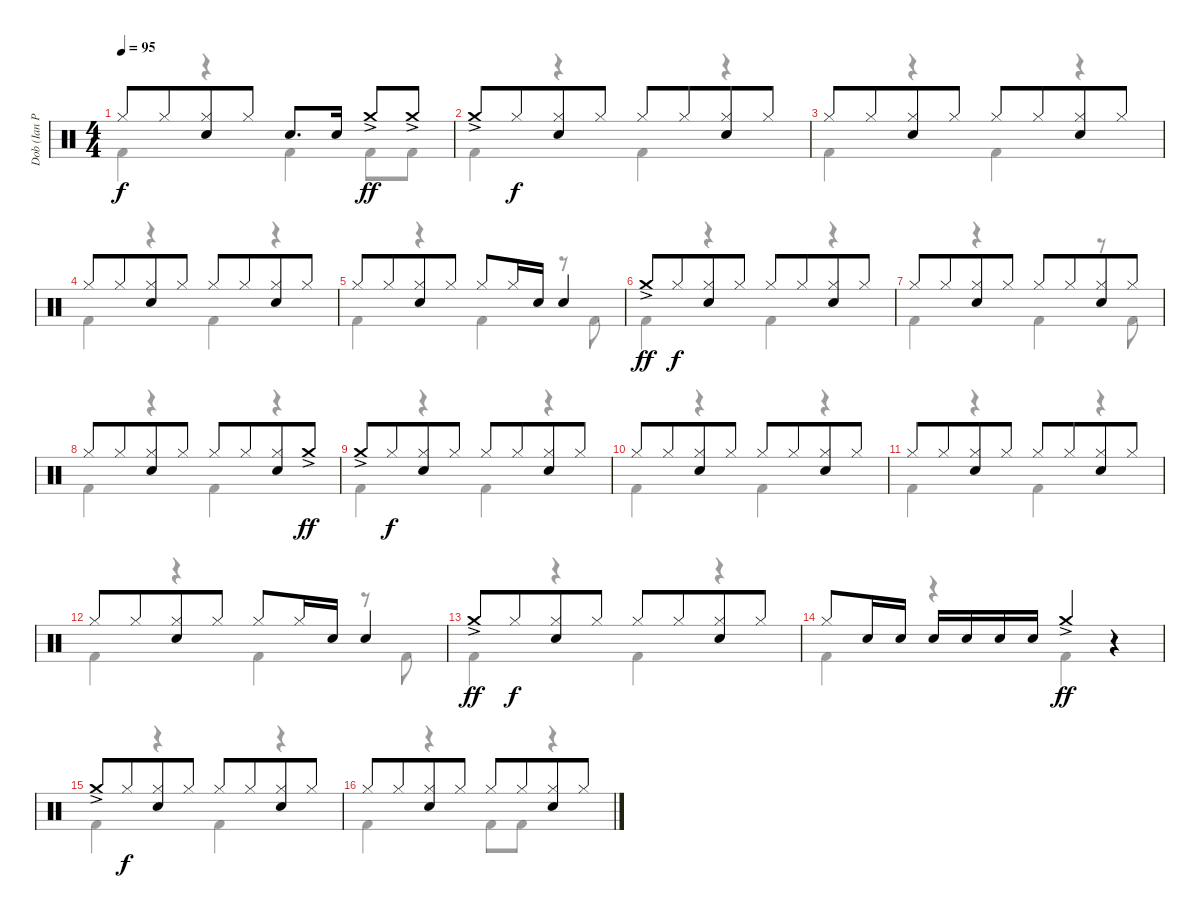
\track ("Dob (Ian Paice)" "Dob (Ian P") {instrument percussion}
\staff {score}
\articulation defaults
\voice
\ts (4 4)
\tempo 95
\clef neutral
\ks c "Hi-Hat (closed)".8{dy f} "Hi-Hat (closed)".8{beam merge}
("Hi-Hat (closed)" "Electric Snare (hit)").8 "Hi-Hat (closed)".8 "Electric Snare (hit)".8{d} "Electric Snare (hit)".16 "Crash medium (hit)"{ac}.8{dy ff} "Crash medium (hit)"{ac}.8 |
"Crash medium (hit)"{ac}.8 "Hi-Hat (closed)".8{dy f beam merge} ("Hi-Hat (closed)" "Electric Snare (hit)").8 "Hi-Hat (closed)".8 "Hi-Hat (closed)".8 "Hi-Hat (closed)".8{beam merge} ("Hi-Hat (closed)" "Electric Snare (hit)").8 "Hi-Hat (closed)".8 |
"Hi-Hat (closed)".8 "Hi-Hat (closed)".8{beam merge} ("Hi-Hat (closed)" "Electric Snare (hit)").8 "Hi-Hat (closed)".8 "Hi-Hat (closed)".8 "Hi-Hat (closed)".8{beam merge} ("Hi-Hat (closed)" "Electric Snare (hit)").8 "Hi-Hat (closed)".8 |
"Hi-Hat (closed)".8 "Hi-Hat (closed)".8{beam merge} ("Hi-Hat (closed)" "Electric Snare (hit)").8 "Hi-Hat (closed)".8 "Hi-Hat (closed)".8 "Hi-Hat (closed)".8{beam merge} ("Hi-Hat (closed)" "Electric Snare (hit)").8 "Hi-Hat (closed)".8 |
"Hi-Hat (closed)".8 "Hi-Hat (closed)".8{beam merge} ("Hi-Hat (closed)" "Electric Snare (hit)").8 "Hi-Hat (closed)".8 "Hi-Hat (closed)".8 "Hi-Hat (closed)".16{beam merge} "Electric Snare (hit)".16 "Electric Snare (hit)".4 |
"Crash medium (hit)"{ac}.8{dy ff} "Hi-Hat (closed)".8{dy f beam merge} ("Hi-Hat (closed)" "Electric Snare (hit)").8 "Hi-Hat (closed)".8 "Hi-Hat (closed)".8 "Hi-Hat (closed)".8{beam merge} ("Hi-Hat (closed)" "Electric Snare (hit)").8 "Hi-Hat (closed)".8 |
"Hi-Hat (closed)".8 "Hi-Hat (closed)".8{beam merge} ("Hi-Hat (closed)" "Electric Snare (hit)").8 "Hi-Hat (closed)".8 "Hi-Hat (closed)".8 "Hi-Hat (closed)".8{beam merge} ("Hi-Hat (closed)" "Electric Snare (hit)").8 "Hi-Hat (closed)".8 |
"Hi-Hat (closed)".8 "Hi-Hat (closed)".8{beam merge} ("Hi-Hat (closed)" "Electric Snare (hit)").8 "Hi-Hat (closed)".8 "Hi-Hat (closed)".8 "Hi-Hat (closed)".8{beam merge} ("Hi-Hat (closed)" "Electric Snare (hit)").8 "Crash medium (hit)"{ac}.8{dy ff} |
"Crash medium (hit)"{ac}.8 "Hi-Hat (closed)".8{dy f beam merge} ("Hi-Hat (closed)" "Electric Snare (hit)").8 "Hi-Hat (closed)".8 "Hi-Hat (closed)".8 "Hi-Hat (closed)".8{beam merge} ("Hi-Hat (closed)" "Electric Snare (hit)").8 "Hi-Hat (closed)".8 |
"Hi-Hat (closed)".8 "Hi-Hat (closed)".8{beam merge} ("Hi-Hat (closed)" "Electric Snare (hit)").8 "Hi-Hat (closed)".8 "Hi-Hat (closed)".8 "Hi-Hat (closed)".8{beam merge} ("Hi-Hat (closed)" "Electric Snare (hit)").8 "Hi-Hat (closed)".8 |
"Hi-Hat (closed)".8 "Hi-Hat (closed)".8{beam merge} ("Hi-Hat (closed)" "Electric Snare (hit)").8 "Hi-Hat (closed)".8 "Hi-Hat (closed)".8 "Hi-Hat (closed)".8{beam merge} ("Hi-Hat (closed)" "Electric Snare (hit)").8 "Hi-Hat (closed)".8 |
"Hi-Hat (closed)".8 "Hi-Hat (closed)".8{beam merge} ("Hi-Hat (closed)" "Electric Snare (hit)").8 "Hi-Hat (closed)".8 "Hi-Hat (closed)".8 "Hi-Hat (closed)".16{beam merge} "Electric Snare (hit)".16 "Electric Snare (hit)".4 |
"Crash medium (hit)"{ac}.8{dy ff} "Hi-Hat (closed)".8{dy f beam merge} ("Hi-Hat (closed)" "Electric Snare (hit)").8 "Hi-Hat (closed)".8 "Hi-Hat (closed)".8 "Hi-Hat (closed)".8{beam merge} ("Hi-Hat (closed)" "Electric Snare (hit)").8 "Hi-Hat (closed)".8 |
"Hi-Hat (closed)".8 "Electric Snare (hit)".16 "Electric Snare (hit)".16 "Electric Snare (hit)".16 "Electric Snare (hit)".16 "Electric Snare (hit)".16 "Electric Snare (hit)".16 "Crash medium (hit)"{ac}.4{dy ff} r.4 |
"Crash medium (hit)"{ac}.8 "Hi-Hat (closed)".8{dy f beam merge} ("Hi-Hat (closed)" "Electric Snare (hit)").8 "Hi-Hat (closed)".8 "Hi-Hat (closed)".8 "Hi-Hat (closed)".8{beam merge} ("Hi-Hat (closed)" "Electric Snare (hit)").8 "Hi-Hat (closed)".8 |
"Hi-Hat (closed)".8 "Hi-Hat (closed)".8{beam merge} ("Hi-Hat (closed)" "Electric Snare (hit)").8 "Hi-Hat (closed)".8 "Hi-Hat (closed)".8 "Hi-Hat (closed)".8{beam merge} ("Hi-Hat (closed)" "Electric Snare (hit)").8 "Hi-Hat (closed)".8
\voice
\clef neutral
\ottava regular
\simile none
\ks c "Kick (hit) 2".4{dy f}
r.4 "Kick (hit) 2".4 "Kick (hit) 2".8 "Kick (hit) 2".8 |
"Kick (hit) 2".4 r.4 "Kick (hit) 2".4 r.4 |
"Kick (hit) 2".4 r.4 "Kick (hit) 2".4 r.4 |
"Kick (hit) 2".4 r.4 "Kick (hit) 2".4 r.4 |
"Kick (hit) 2".4 r.4 "Kick (hit) 2".4 r.8 "Kick (hit) 2".8 |
"Kick (hit) 2".4 r.4 "Kick (hit) 2".4 r.4 |
"Kick (hit) 2".4 r.4 "Kick (hit) 2".4 r.8 "Kick (hit) 2".8 |
"Kick (hit) 2".4 r.4 "Kick (hit) 2".4 r.4 |
"Kick (hit) 2".4 r.4 "Kick (hit) 2".4 r.4 |
"Kick (hit) 2".4 r.4 "Kick (hit) 2".4 r.4 |
"Kick (hit) 2".4 r.4 "Kick (hit) 2".4 r.4 |
"Kick (hit) 2".4 r.4 "Kick (hit) 2".4 r.8 "Kick (hit) 2".8 |
"Kick (hit) 2".4 r.4 "Kick (hit) 2".4 r.4 |
"Kick (hit) 2".4 r.4 "Kick (hit) 2".4 r.4 |
"Kick (hit) 2".4 r.4 "Kick (hit) 2".4 r.4 |
"Kick (hit) 2".4 r.4 "Kick (hit) 2".8 "Kick (hit) 2".8 r.4
